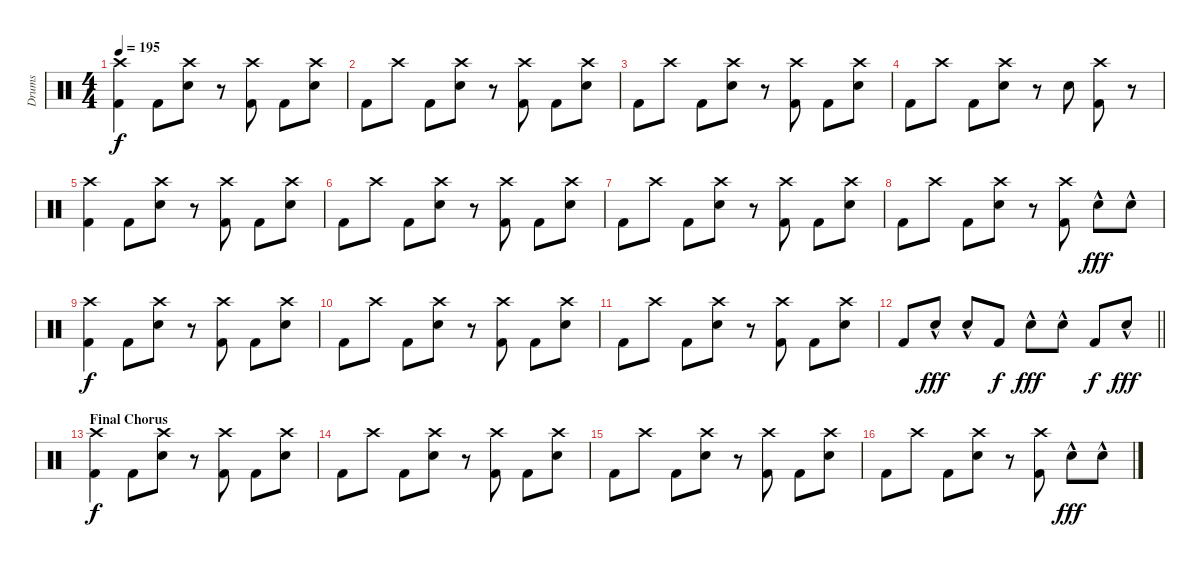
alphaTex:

\track ("Drums" "Drums") {instrument percussion}
\staff {score}
\articulation defaults
\ts (4 4)
\tempo 195
\clef neutral
\ks c
("Crash high (hit)" "Kick (hit) 2").4{dy f} "Kick (hit) 2".8 ("Crash high (hit)" "Electric Snare (hit)").8 r.8 ("Crash high (hit)" "Kick (hit) 2").8 "Kick (hit) 2".8 ("Crash high (hit)" "Electric Snare (hit)").8 |
"Kick (hit) 2".8 "Crash high (hit)".8 "Kick (hit) 2".8 ("Crash high (hit)" "Electric Snare (hit)").8 r.8 ("Crash high (hit)" "Kick (hit) 2").8 "Kick (hit) 2".8 ("Crash high (hit)" "Electric Snare (hit)").8 |
"Kick (hit) 2".8 "Crash high (hit)".8 "Kick (hit) 2".8 ("Crash high (hit)" "Electric Snare (hit)").8 r.8 ("Crash high (hit)" "Kick (hit) 2").8 "Kick (hit) 2".8 ("Crash high (hit)" "Electric Snare (hit)").8 |
"Kick (hit) 2".8 "Crash high (hit)".8 "Kick (hit) 2".8 ("Crash high (hit)" "Electric Snare (hit)").8 r.8 "Electric Snare (hit)".8 ("Crash high (hit)" "Kick (hit) 2").8 r.8 |
("Crash high (hit)" "Kick (hit) 2").4 "Kick (hit) 2".8 ("Crash high (hit)" "Electric Snare (hit)").8 r.8 ("Crash high (hit)" "Kick (hit) 2").8 "Kick (hit) 2".8 ("Crash high (hit)" "Electric Snare (hit)").8 |
"Kick (hit) 2".8 "Crash high (hit)".8 "Kick (hit) 2".8 ("Crash high (hit)" "Electric Snare (hit)").8 r.8 ("Crash high (hit)" "Kick (hit) 2").8 "Kick (hit) 2".8 ("Crash high (hit)" "Electric Snare (hit)").8 |
"Kick (hit) 2".8 "Crash high (hit)".8 "Kick (hit) 2".8 ("Crash high (hit)" "Electric Snare (hit)").8 r.8 ("Crash high (hit)" "Kick (hit) 2").8 "Kick (hit) 2".8 ("Crash high (hit)" "Electric Snare (hit)").8 |
"Kick (hit) 2".8 "Crash high (hit)".8 "Kick (hit) 2".8 ("Crash high (hit)" "Electric Snare (hit)").8 r.8 ("Crash high (hit)" "Kick (hit) 2").8 "Electric Snare (hit)"{hac}.8{dy fff} "Electric Snare (hit)"{hac}.8 |
("Crash high (hit)" "Kick (hit) 2").4{dy f} "Kick (hit) 2".8 ("Crash high (hit)" "Electric Snare (hit)").8 r.8 ("Crash high (hit)" "Kick (hit) 2").8 "Kick (hit) 2".8 ("Crash high (hit)" "Electric Snare (hit)").8 |
"Kick (hit) 2".8 "Crash high (hit)".8 "Kick (hit) 2".8 ("Crash high (hit)" "Electric Snare (hit)").8 r.8 ("Crash high (hit)" "Kick (hit) 2").8 "Kick (hit) 2".8 ("Crash high (hit)" "Electric Snare (hit)").8 |
"Kick (hit) 2".8 "Crash high (hit)".8 "Kick (hit) 2".8 ("Crash high (hit)" "Electric Snare (hit)").8 r.8 ("Crash high (hit)" "Kick (hit) 2").8 "Kick (hit) 2".8 ("Crash high (hit)" "Electric Snare (hit)").8 |
\barLineRight lightlight "Kick (hit) 2".8 "Electric Snare (hit)"{hac}.8{dy fff} "Electric Snare (hit)"{hac}.8 "Kick (hit) 2".8{dy f} "Electric Snare (hit)"{hac}.8{dy fff} "Electric Snare (hit)"{hac}.8 "Kick (hit) 2".8{dy f} "Electric Snare (hit)"{hac}.8{dy fff}
|
\section ("" "Final Chorus")
("Crash high (hit)" "Kick (hit) 2").4{dy f} "Kick (hit) 2".8 ("Crash high (hit)" "Electric Snare (hit)").8 r.8 ("Crash high (hit)" "Kick (hit) 2").8 "Kick (hit) 2".8 ("Crash high (hit)" "Electric Snare (hit)").8 |
"Kick (hit) 2".8 "Crash high (hit)".8 "Kick (hit) 2".8 ("Crash high (hit)" "Electric Snare (hit)").8 r.8 ("Crash high (hit)" "Kick (hit) 2").8 "Kick (hit) 2".8 ("Crash high (hit)" "Electric Snare (hit)").8 |
"Kick (hit) 2".8 "Crash high (hit)".8 "Kick (hit) 2".8 ("Crash high (hit)" "Electric Snare (hit)").8 r.8 ("Crash high (hit)" "Kick (hit) 2").8 "Kick (hit) 2".8 ("Crash high (hit)" "Electric Snare (hit)").8 |
"Kick (hit) 2".8 "Crash high (hit)".8 "Kick (hit) 2".8 ("Crash high (hit)" "Electric Snare (hit)").8 r.8 ("Crash high (hit)" "Kick (hit) 2").8 "Electric Snare (hit)"{hac}.8{dy fff} "Electric Snare (hit)"{hac}.8
